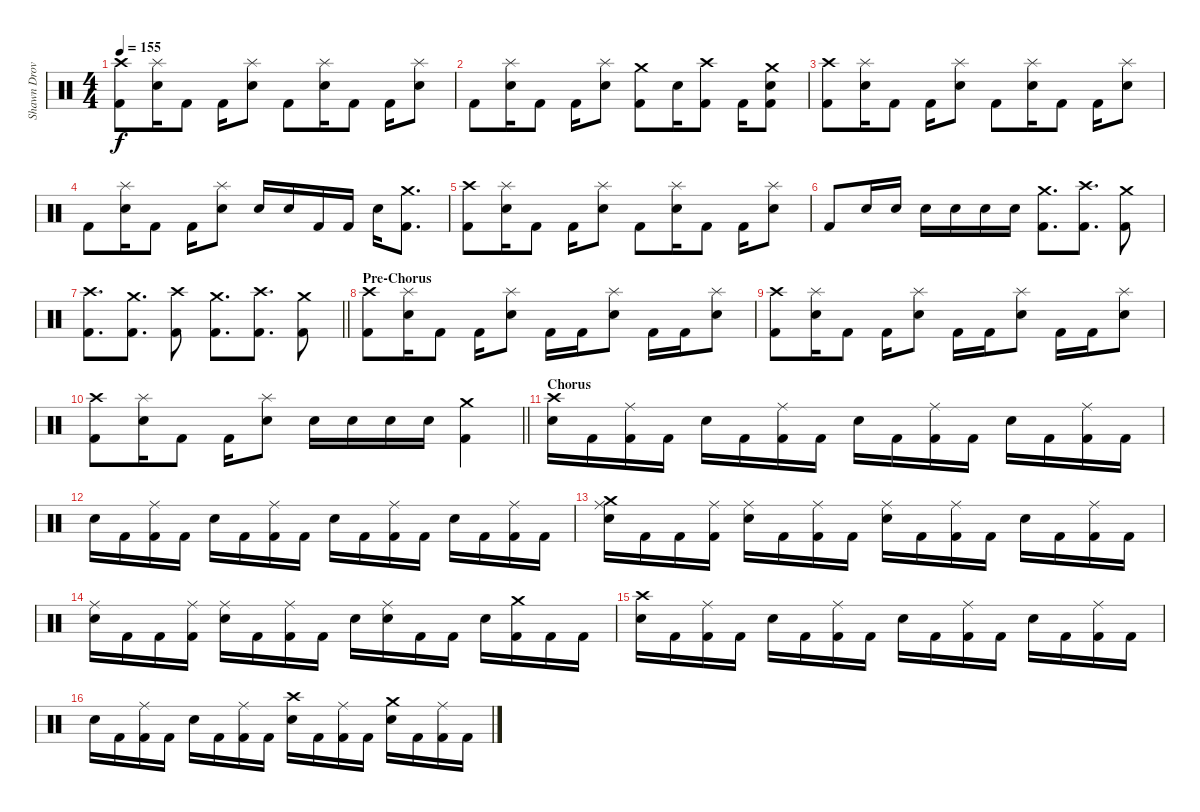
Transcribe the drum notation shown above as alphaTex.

\track ("Shawn Drover" "Shawn Drov") {instrument percussion}
\staff {score}
\articulation defaults
\ts (4 4)
\tempo 155
\clef neutral
\ks c
("Crash high (hit)" "Kick (hit) 2").8{dy f} ("Splash (hit)" "Snare (hit) 2").16 "Kick (hit) 2".8 "Kick (hit) 2".16 ("Splash (hit)" "Snare (hit) 2").8 "Kick (hit) 2".8 ("Splash (hit)" "Snare (hit) 2").16 "Kick (hit) 2".8 "Kick (hit) 2".16 ("Splash (hit)" "Snare (hit) 2").8 |
"Kick (hit) 2".8 ("Splash (hit)" "Snare (hit) 2").16 "Kick (hit) 2".8 "Kick (hit) 2".16 ("Splash (hit)" "Snare (hit) 2").8 ("Crash medium (hit)" "Kick (hit) 2").8 "Snare (hit) 2".16 ("Crash high (hit)" "Kick (hit) 2").8 "Kick (hit) 2".16 ("Crash medium (hit)" "Snare (hit) 2" "Kick (hit) 2").8 |
("Crash high (hit)" "Kick (hit) 2").8 ("Splash (hit)" "Snare (hit) 2").16 "Kick (hit) 2".8 "Kick (hit) 2".16 ("Splash (hit)" "Snare (hit) 2").8 "Kick (hit) 2".8 ("Splash (hit)" "Snare (hit) 2").16 "Kick (hit) 2".8 "Kick (hit) 2".16 ("Splash (hit)" "Snare (hit) 2").8 |
"Kick (hit) 2".8 ("Splash (hit)" "Snare (hit) 2").16 "Kick (hit) 2".8 "Kick (hit) 2".16 ("Splash (hit)" "Snare (hit) 2").8 "Snare (hit) 2".16 "Snare (hit) 2".16 "Kick (hit) 2".16 "Kick (hit) 2".16 "Snare (hit) 2".16 ("Crash medium (hit)" "Kick (hit) 2").8{d} |
("Crash high (hit)" "Kick (hit) 2").8 ("Splash (hit)" "Snare (hit) 2").16 "Kick (hit) 2".8 "Kick (hit) 2".16 ("Splash (hit)" "Snare (hit) 2").8 "Kick (hit) 2".8 ("Splash (hit)" "Snare (hit) 2").16 "Kick (hit) 2".8 "Kick (hit) 2".16 ("Splash (hit)" "Snare (hit) 2").8 |
"Kick (hit) 2".8 "Snare (hit) 2".16 "Snare (hit) 2".16 "Snare (hit) 2".16 "Snare (hit) 2".16 "Snare (hit) 2".16 "Snare (hit) 2".16 ("Crash medium (hit)" "Kick (hit) 2").8{d} ("Crash high (hit)" "Kick (hit) 2").8{d} ("Crash medium (hit)" "Kick (hit) 2").8 |
\barLineRight lightlight
("Crash high (hit)" "Kick (hit) 2").8{d} ("Crash medium (hit)" "Kick (hit) 2").8{d} ("Crash high (hit)" "Kick (hit) 2").8 ("Crash medium (hit)" "Kick (hit) 2").8{d} ("Crash high (hit)" "Kick (hit) 2").8{d} ("Crash medium (hit)" "Kick (hit) 2").8 |
\section ("" "Pre-Chorus")
("Crash high (hit)" "Kick (hit) 2").8 ("Splash (hit)" "Snare (hit) 2").16 "Kick (hit) 2".8 "Kick (hit) 2".16 ("Splash (hit)" "Snare (hit) 2").8 "Kick (hit) 2".16 "Kick (hit) 2".16 ("Splash (hit)" "Snare (hit) 2").8 "Kick (hit) 2".16 "Kick (hit) 2".16 ("Splash (hit)" "Snare (hit) 2").8 |
("Crash high (hit)" "Kick (hit) 2").8 ("Splash (hit)" "Snare (hit) 2").16 "Kick (hit) 2".8 "Kick (hit) 2".16 ("Splash (hit)" "Snare (hit) 2").8 "Kick (hit) 2".16 "Kick (hit) 2".16 ("Splash (hit)" "Snare (hit) 2").8 "Kick (hit) 2".16 "Kick (hit) 2".16 ("Splash (hit)" "Snare (hit) 2").8 |
\barLineRight lightlight
("Crash high (hit)" "Kick (hit) 2").8 ("Splash (hit)" "Snare (hit) 2").16 "Kick (hit) 2".8 "Kick (hit) 2".16 ("Splash (hit)" "Snare (hit) 2").8 "Snare (hit) 2".16 "Snare (hit) 2".16 "Snare (hit) 2".16 "Snare (hit) 2".16 ("Crash medium (hit)" "Kick (hit) 2").4 |
\section ("" "Chorus")
("Crash high (hit)" "Snare (hit) 2").16 "Kick (hit) 2".16 ("Ride (middle)" "Kick (hit) 2").16 "Kick (hit) 2".16 "Snare (hit) 2".16 "Kick (hit) 2".16 ("Ride (middle)" "Kick (hit) 2").16 "Kick (hit) 2".16 "Snare (hit) 2".16 "Kick (hit) 2".16 ("Ride (middle)" "Kick (hit) 2").16 "Kick (hit) 2".16 "Snare (hit) 2".16 "Kick (hit) 2".16 ("Ride (middle)" "Kick (hit) 2").16 "Kick (hit) 2".16 |
"Snare (hit) 2".16 "Kick (hit) 2".16 ("Ride (middle)" "Kick (hit) 2").16 "Kick (hit) 2".16 "Snare (hit) 2".16 "Kick (hit) 2".16 ("Ride (middle)" "Kick (hit) 2").16 "Kick (hit) 2".16 "Snare (hit) 2".16 "Kick (hit) 2".16 ("Ride (middle)" "Kick (hit) 2").16 "Kick (hit) 2".16 "Snare (hit) 2".16 "Kick (hit) 2".16 ("Ride (middle)" "Kick (hit) 2").16 "Kick (hit) 2".16 |
("Crash medium (hit)" "Ride (middle)" "Snare (hit) 2").16 "Kick (hit) 2".16 "Kick (hit) 2".16 ("Ride (middle)" "Kick (hit) 2").16 ("Ride (middle)" "Snare (hit) 2").16 "Kick (hit) 2".16 ("Ride (middle)" "Kick (hit) 2").16 "Kick (hit) 2".16 ("Ride (middle)" "Snare (hit) 2").16 "Kick (hit) 2".16 ("Ride (middle)" "Kick (hit) 2").16 "Kick (hit) 2".16 "Snare (hit) 2".16 "Kick (hit) 2".16 ("Ride (middle)" "Kick (hit) 2").16 "Kick (hit) 2".16 |
("Ride (middle)" "Snare (hit) 2").16 "Kick (hit) 2".16 "Kick (hit) 2".16 ("Ride (middle)" "Kick (hit) 2").16 ("Ride (middle)" "Snare (hit) 2").16 "Kick (hit) 2".16 ("Ride (middle)" "Kick (hit) 2").16 "Kick (hit) 2".16 "Snare (hit) 2".16 ("Ride (middle)" "Snare (hit) 2").16 "Kick (hit) 2".16 "Kick (hit) 2".16 "Snare (hit) 2".16 ("Crash medium (hit)" "Kick (hit) 2").16 "Kick (hit) 2".16 "Kick (hit) 2".16 |
("Crash high (hit)" "Snare (hit) 2").16 "Kick (hit) 2".16 ("Ride (middle)" "Kick (hit) 2").16 "Kick (hit) 2".16 "Snare (hit) 2".16 "Kick (hit) 2".16 ("Ride (middle)" "Kick (hit) 2").16 "Kick (hit) 2".16 "Snare (hit) 2".16 "Kick (hit) 2".16 ("Ride (middle)" "Kick (hit) 2").16 "Kick (hit) 2".16 "Snare (hit) 2".16 "Kick (hit) 2".16 ("Ride (middle)" "Kick (hit) 2").16 "Kick (hit) 2".16 |
"Snare (hit) 2".16 "Kick (hit) 2".16 ("Ride (middle)" "Kick (hit) 2").16 "Kick (hit) 2".16 "Snare (hit) 2".16 "Kick (hit) 2".16 ("Ride (middle)" "Kick (hit) 2").16 "Kick (hit) 2".16 ("Crash high (hit)" "Snare (hit) 2").16 "Kick (hit) 2".16 ("Ride (middle)" "Kick (hit) 2").16 "Kick (hit) 2".16 ("Crash medium (hit)" "Snare (hit) 2").16 "Kick (hit) 2".16 ("Ride (middle)" "Kick (hit) 2").16 "Kick (hit) 2".16
